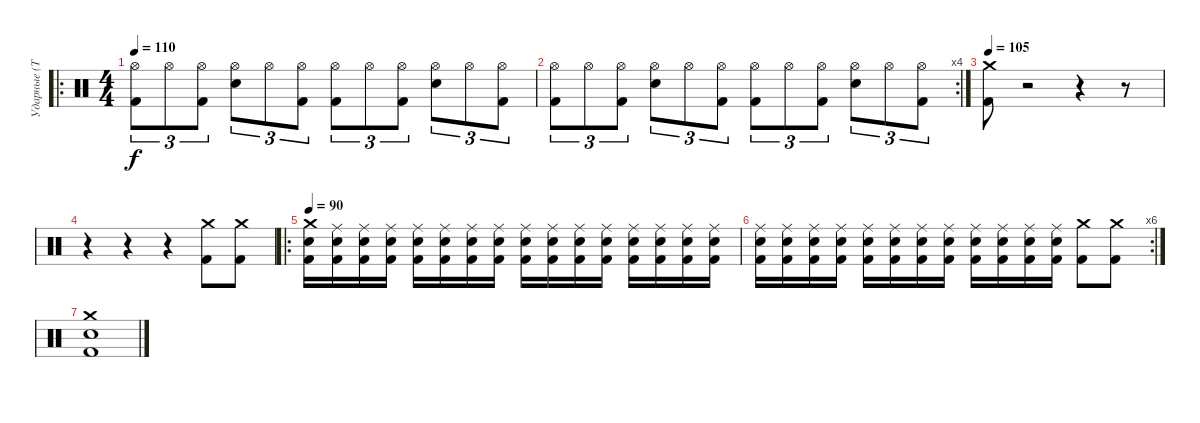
\track ("Ударные (Тьодальв)" "Ударные (Т") {instrument percussion}
\staff {score}
\articulation defaults
\ro
\ts (4 4)
\tempo 110
\clef neutral
\ks c
("Hi-Hat (open)" "Kick (hit) 2").8{tu (3 2) dy f} "Hi-Hat (open)".8{tu (3 2)} ("Hi-Hat (open)" "Kick (hit) 2").8{tu (3 2)} ("Hi-Hat (open)" "Snare (hit) 2").8{tu (3 2)} "Hi-Hat (open)".8{tu (3 2)} ("Hi-Hat (open)" "Kick (hit) 2").8{tu (3 2)} ("Hi-Hat (open)" "Kick (hit) 2").8{tu (3 2)} "Hi-Hat (open)".8{tu (3 2)} ("Hi-Hat (open)" "Kick (hit) 2").8{tu (3 2)} ("Hi-Hat (open)" "Snare (hit) 2").8{tu (3 2)} "Hi-Hat (open)".8{tu (3 2)} ("Hi-Hat (open)" "Kick (hit) 2").8{tu (3 2)} |
\rc 4
("Hi-Hat (open)" "Kick (hit) 2").8{tu (3 2)} "Hi-Hat (open)".8{tu (3 2)} ("Hi-Hat (open)" "Kick (hit) 2").8{tu (3 2)} ("Hi-Hat (open)" "Snare (hit) 2").8{tu (3 2)} "Hi-Hat (open)".8{tu (3 2)} ("Hi-Hat (open)" "Kick (hit) 2").8{tu (3 2)} ("Hi-Hat (open)" "Kick (hit) 2").8{tu (3 2)} "Hi-Hat (open)".8{tu (3 2)} ("Hi-Hat (open)" "Kick (hit) 2").8{tu (3 2)} ("Hi-Hat (open)" "Snare (hit) 2").8{tu (3 2)} "Hi-Hat (open)".8{tu (3 2)} ("Hi-Hat (open)" "Kick (hit) 2").8{tu (3 2)} |
\tempo 105
("Kick (hit) 2" "Crash medium (hit)").8 r.2 r.4 r.8 |
r.4 r.4 r.4 ("Kick (hit) 2" "Crash medium (hit)").8 ("Kick (hit) 2" "Crash medium (hit)").8 |
\ro
\tempo 105
\tempo 90
("Crash medium (hit)" "Snare (hit) 2" "Kick (hit) 2").16 ("Ride (middle)" "Snare (hit) 2" "Kick (hit) 2").16 ("Ride (middle)" "Snare (hit) 2" "Kick (hit) 2").16 ("Ride (middle)" "Snare (hit) 2" "Kick (hit) 2").16 ("Ride (middle)" "Snare (hit) 2" "Kick (hit) 2").16 ("Ride (middle)" "Snare (hit) 2" "Kick (hit) 2").16 ("Ride (middle)" "Snare (hit) 2" "Kick (hit) 2").16 ("Ride (middle)" "Snare (hit) 2" "Kick (hit) 2").16 ("Ride (middle)" "Snare (hit) 2" "Kick (hit) 2").16 ("Ride (middle)" "Snare (hit) 2" "Kick (hit) 2").16 ("Ride (middle)" "Snare (hit) 2" "Kick (hit) 2").16 ("Ride (middle)" "Snare (hit) 2" "Kick (hit) 2").16 ("Ride (middle)" "Snare (hit) 2" "Kick (hit) 2").16 ("Ride (middle)" "Snare (hit) 2" "Kick (hit) 2").16 ("Ride (middle)" "Snare (hit) 2" "Kick (hit) 2").16 ("Ride (middle)" "Snare (hit) 2" "Kick (hit) 2").16 |
\rc 6
("Ride (middle)" "Snare (hit) 2" "Kick (hit) 2").16 ("Ride (middle)" "Snare (hit) 2" "Kick (hit) 2").16 ("Ride (middle)" "Snare (hit) 2" "Kick (hit) 2").16 ("Ride (middle)" "Snare (hit) 2" "Kick (hit) 2").16 ("Ride (middle)" "Snare (hit) 2" "Kick (hit) 2").16 ("Ride (middle)" "Snare (hit) 2" "Kick (hit) 2").16 ("Ride (middle)" "Snare (hit) 2" "Kick (hit) 2").16 ("Ride (middle)" "Snare (hit) 2" "Kick (hit) 2").16 ("Ride (middle)" "Snare (hit) 2" "Kick (hit) 2").16 ("Ride (middle)" "Snare (hit) 2" "Kick (hit) 2").16 ("Ride (middle)" "Snare (hit) 2" "Kick (hit) 2").16 ("Ride (middle)" "Snare (hit) 2" "Kick (hit) 2").16 ("Crash medium (hit)" "Kick (hit) 2").8 ("Crash medium (hit)" "Kick (hit) 2").8 |
("Kick (hit) 2" "Snare (hit) 2" "Crash medium (hit)").1
